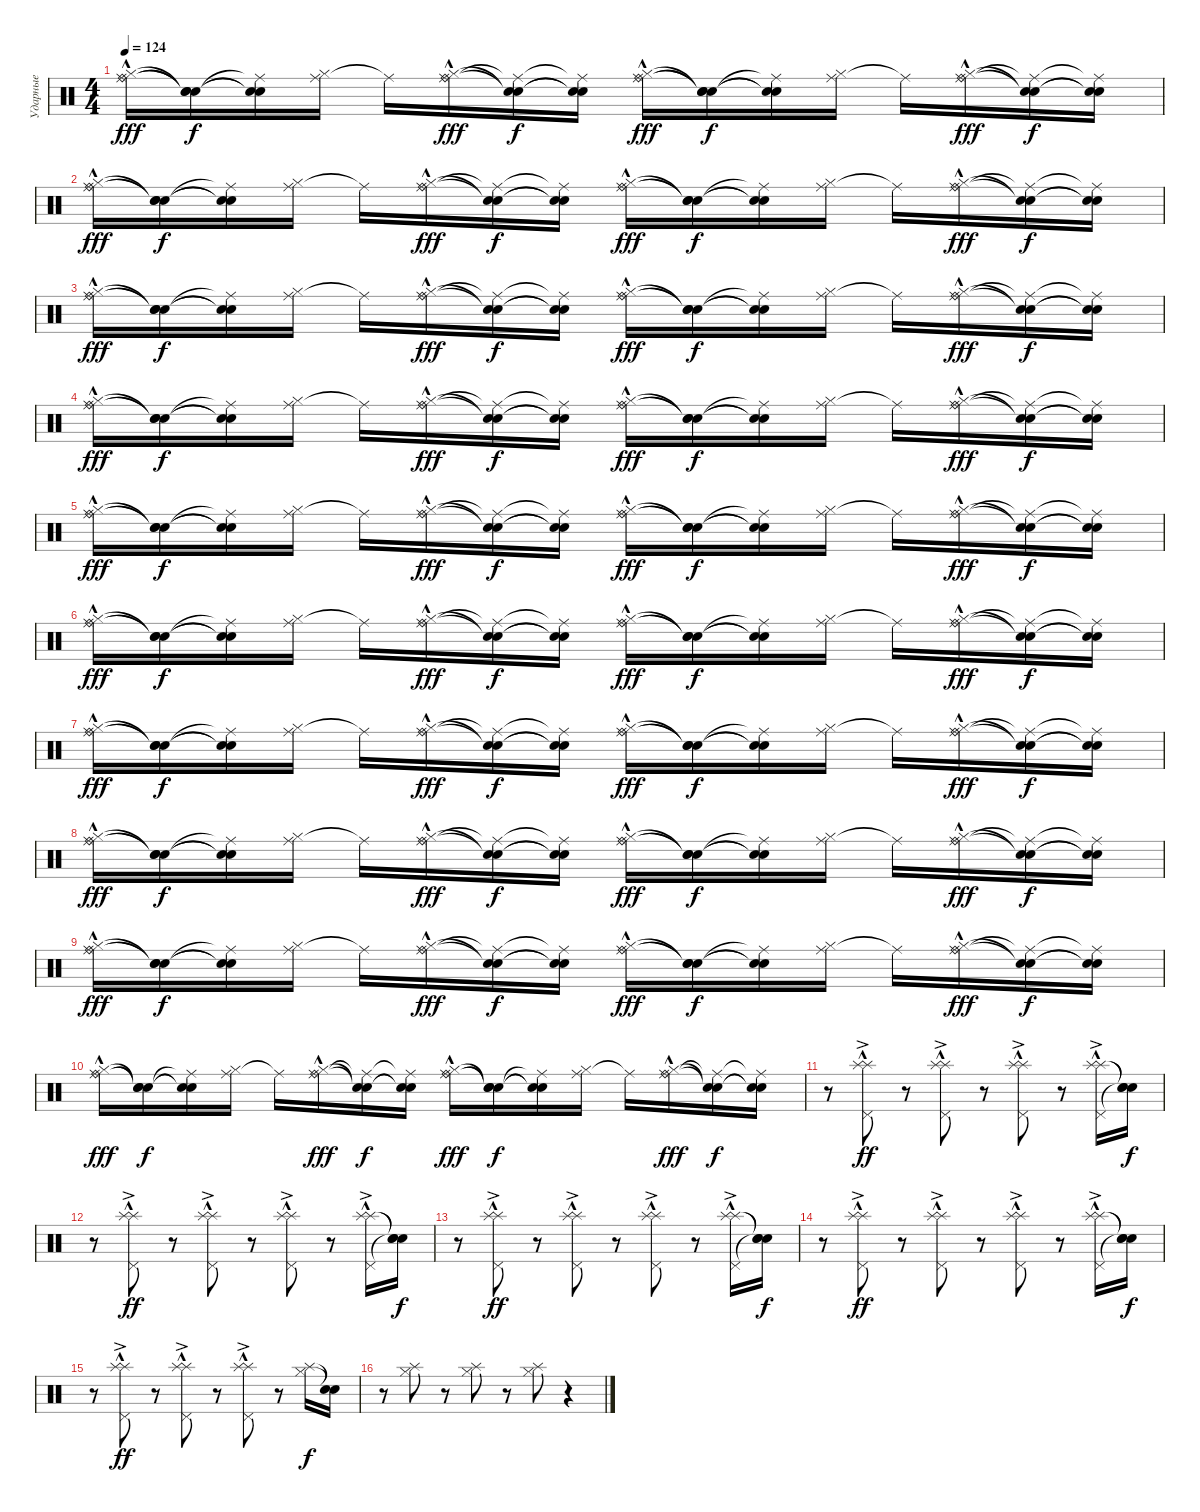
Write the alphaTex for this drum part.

\track ("Ударные" "Ударные") {instrument percussion}
\staff {score}
\articulation defaults
\ts (4 4)
\tempo 124
\clef neutral
\ks c
("Ride (middle)"{hac} "Hi-Hat (closed)" "Ride (bell)").16{dy fff} ("Snare (hit)"{t} "Snare (hit)"{t} "Snare (hit)"{t}).16{dy f} ("Ride (middle)"{t} "Snare (hit)"{t} "Snare (hit)"{t}).16 ("Ride (middle)" "Hi-Hat (closed)").16 "Ride (middle)"{t}.16 ("Ride (middle)" "Hi-Hat (closed)" "Ride (bell)"{hac}).16{dy fff} ("Ride (middle)"{t} "Snare (hit)"{t} "Snare (hit)"{t}).16{dy f} ("Ride (middle)"{t} "Snare (hit)"{t} "Snare (hit)"{t}).16 ("Ride (middle)"{hac} "Hi-Hat (closed)" "Ride (bell)").16{dy fff} ("Snare (hit)"{t} "Snare (hit)"{t} "Snare (hit)"{t}).16{dy f} ("Ride (middle)"{t} "Snare (hit)"{t} "Snare (hit)"{t}).16 ("Ride (middle)" "Hi-Hat (closed)").16 "Ride (middle)"{t}.16 ("Ride (middle)" "Hi-Hat (closed)" "Ride (bell)"{hac}).16{dy fff} ("Ride (middle)"{t} "Snare (hit)"{t} "Snare (hit)"{t}).16{dy f} ("Ride (middle)"{t} "Snare (hit)"{t} "Snare (hit)"{t}).16 |
("Ride (middle)"{hac} "Hi-Hat (closed)" "Ride (bell)").16{dy fff} ("Snare (hit)"{t} "Snare (hit)"{t} "Snare (hit)"{t}).16{dy f} ("Ride (middle)"{t} "Snare (hit)"{t} "Snare (hit)"{t}).16 ("Ride (middle)" "Hi-Hat (closed)").16 "Ride (middle)"{t}.16 ("Ride (middle)" "Hi-Hat (closed)" "Ride (bell)"{hac}).16{dy fff} ("Ride (middle)"{t} "Snare (hit)"{t} "Snare (hit)"{t}).16{dy f} ("Ride (middle)"{t} "Snare (hit)"{t} "Snare (hit)"{t}).16 ("Ride (middle)"{hac} "Hi-Hat (closed)" "Ride (bell)").16{dy fff} ("Snare (hit)"{t} "Snare (hit)"{t} "Snare (hit)"{t}).16{dy f} ("Ride (middle)"{t} "Snare (hit)"{t} "Snare (hit)"{t}).16 ("Ride (middle)" "Hi-Hat (closed)").16 "Ride (middle)"{t}.16 ("Ride (middle)" "Hi-Hat (closed)" "Ride (bell)"{hac}).16{dy fff} ("Ride (middle)"{t} "Snare (hit)"{t} "Snare (hit)"{t}).16{dy f} ("Ride (middle)"{t} "Snare (hit)"{t} "Snare (hit)"{t}).16 |
("Ride (middle)"{hac} "Hi-Hat (closed)" "Ride (bell)").16{dy fff} ("Snare (hit)"{t} "Snare (hit)"{t} "Snare (hit)"{t}).16{dy f} ("Ride (middle)"{t} "Snare (hit)"{t} "Snare (hit)"{t}).16 ("Ride (middle)" "Hi-Hat (closed)").16 "Ride (middle)"{t}.16 ("Ride (middle)" "Hi-Hat (closed)" "Ride (bell)"{hac}).16{dy fff} ("Ride (middle)"{t} "Snare (hit)"{t} "Snare (hit)"{t}).16{dy f} ("Ride (middle)"{t} "Snare (hit)"{t} "Snare (hit)"{t}).16 ("Ride (middle)"{hac} "Hi-Hat (closed)" "Ride (bell)").16{dy fff} ("Snare (hit)"{t} "Snare (hit)"{t} "Snare (hit)"{t}).16{dy f} ("Ride (middle)"{t} "Snare (hit)"{t} "Snare (hit)"{t}).16 ("Ride (middle)" "Hi-Hat (closed)").16 "Ride (middle)"{t}.16 ("Ride (middle)" "Hi-Hat (closed)" "Ride (bell)"{hac}).16{dy fff} ("Ride (middle)"{t} "Snare (hit)"{t} "Snare (hit)"{t}).16{dy f} ("Ride (middle)"{t} "Snare (hit)"{t} "Snare (hit)"{t}).16 |
("Ride (middle)"{hac} "Hi-Hat (closed)" "Ride (bell)").16{dy fff} ("Snare (hit)"{t} "Snare (hit)"{t} "Snare (hit)"{t}).16{dy f} ("Ride (middle)"{t} "Snare (hit)"{t} "Snare (hit)"{t}).16 ("Ride (middle)" "Hi-Hat (closed)").16 "Ride (middle)"{t}.16 ("Ride (middle)" "Hi-Hat (closed)" "Ride (bell)"{hac}).16{dy fff} ("Ride (middle)"{t} "Snare (hit)"{t} "Snare (hit)"{t}).16{dy f} ("Ride (middle)"{t} "Snare (hit)"{t} "Snare (hit)"{t}).16 ("Ride (middle)"{hac} "Hi-Hat (closed)" "Ride (bell)").16{dy fff} ("Snare (hit)"{t} "Snare (hit)"{t} "Snare (hit)"{t}).16{dy f} ("Ride (middle)"{t} "Snare (hit)"{t} "Snare (hit)"{t}).16 ("Ride (middle)" "Hi-Hat (closed)").16 "Ride (middle)"{t}.16 ("Ride (middle)" "Hi-Hat (closed)" "Ride (bell)"{hac}).16{dy fff} ("Ride (middle)"{t} "Snare (hit)"{t} "Snare (hit)"{t}).16{dy f} ("Ride (middle)"{t} "Snare (hit)"{t} "Snare (hit)"{t}).16 |
("Ride (middle)"{hac} "Hi-Hat (closed)" "Ride (bell)").16{dy fff} ("Snare (hit)"{t} "Snare (hit)"{t} "Snare (hit)"{t}).16{dy f} ("Ride (middle)"{t} "Snare (hit)"{t} "Snare (hit)"{t}).16 ("Ride (middle)" "Hi-Hat (closed)").16 "Ride (middle)"{t}.16 ("Ride (middle)" "Hi-Hat (closed)" "Ride (bell)"{hac}).16{dy fff} ("Ride (middle)"{t} "Snare (hit)"{t} "Snare (hit)"{t}).16{dy f} ("Ride (middle)"{t} "Snare (hit)"{t} "Snare (hit)"{t}).16 ("Ride (middle)"{hac} "Hi-Hat (closed)" "Ride (bell)").16{dy fff} ("Snare (hit)"{t} "Snare (hit)"{t} "Snare (hit)"{t}).16{dy f} ("Ride (middle)"{t} "Snare (hit)"{t} "Snare (hit)"{t}).16 ("Ride (middle)" "Hi-Hat (closed)").16 "Ride (middle)"{t}.16 ("Ride (middle)" "Hi-Hat (closed)" "Ride (bell)"{hac}).16{dy fff} ("Ride (middle)"{t} "Snare (hit)"{t} "Snare (hit)"{t}).16{dy f} ("Ride (middle)"{t} "Snare (hit)"{t} "Snare (hit)"{t}).16 |
("Ride (middle)"{hac} "Hi-Hat (closed)" "Ride (bell)").16{dy fff} ("Snare (hit)"{t} "Snare (hit)"{t} "Snare (hit)"{t}).16{dy f} ("Ride (middle)"{t} "Snare (hit)"{t} "Snare (hit)"{t}).16 ("Ride (middle)" "Hi-Hat (closed)").16 "Ride (middle)"{t}.16 ("Ride (middle)" "Hi-Hat (closed)" "Ride (bell)"{hac}).16{dy fff} ("Ride (middle)"{t} "Snare (hit)"{t} "Snare (hit)"{t}).16{dy f} ("Ride (middle)"{t} "Snare (hit)"{t} "Snare (hit)"{t}).16 ("Ride (middle)"{hac} "Hi-Hat (closed)" "Ride (bell)").16{dy fff} ("Snare (hit)"{t} "Snare (hit)"{t} "Snare (hit)"{t}).16{dy f} ("Ride (middle)"{t} "Snare (hit)"{t} "Snare (hit)"{t}).16 ("Ride (middle)" "Hi-Hat (closed)").16 "Ride (middle)"{t}.16 ("Ride (middle)" "Hi-Hat (closed)" "Ride (bell)"{hac}).16{dy fff} ("Ride (middle)"{t} "Snare (hit)"{t} "Snare (hit)"{t}).16{dy f} ("Ride (middle)"{t} "Snare (hit)"{t} "Snare (hit)"{t}).16 |
("Ride (middle)"{hac} "Hi-Hat (closed)" "Ride (bell)").16{dy fff} ("Snare (hit)"{t} "Snare (hit)"{t} "Snare (hit)"{t}).16{dy f} ("Ride (middle)"{t} "Snare (hit)"{t} "Snare (hit)"{t}).16 ("Ride (middle)" "Hi-Hat (closed)").16 "Ride (middle)"{t}.16 ("Ride (middle)" "Hi-Hat (closed)" "Ride (bell)"{hac}).16{dy fff} ("Ride (middle)"{t} "Snare (hit)"{t} "Snare (hit)"{t}).16{dy f} ("Ride (middle)"{t} "Snare (hit)"{t} "Snare (hit)"{t}).16 ("Ride (middle)"{hac} "Hi-Hat (closed)" "Ride (bell)").16{dy fff} ("Snare (hit)"{t} "Snare (hit)"{t} "Snare (hit)"{t}).16{dy f} ("Ride (middle)"{t} "Snare (hit)"{t} "Snare (hit)"{t}).16 ("Ride (middle)" "Hi-Hat (closed)").16 "Ride (middle)"{t}.16 ("Ride (middle)" "Hi-Hat (closed)" "Ride (bell)"{hac}).16{dy fff} ("Ride (middle)"{t} "Snare (hit)"{t} "Snare (hit)"{t}).16{dy f} ("Ride (middle)"{t} "Snare (hit)"{t} "Snare (hit)"{t}).16 |
("Ride (middle)"{hac} "Hi-Hat (closed)" "Ride (bell)").16{dy fff} ("Snare (hit)"{t} "Snare (hit)"{t} "Snare (hit)"{t}).16{dy f} ("Ride (middle)"{t} "Snare (hit)"{t} "Snare (hit)"{t}).16 ("Ride (middle)" "Hi-Hat (closed)").16 "Ride (middle)"{t}.16 ("Ride (middle)" "Hi-Hat (closed)" "Ride (bell)"{hac}).16{dy fff} ("Ride (middle)"{t} "Snare (hit)"{t} "Snare (hit)"{t}).16{dy f} ("Ride (middle)"{t} "Snare (hit)"{t} "Snare (hit)"{t}).16 ("Ride (middle)"{hac} "Hi-Hat (closed)" "Ride (bell)").16{dy fff} ("Snare (hit)"{t} "Snare (hit)"{t} "Snare (hit)"{t}).16{dy f} ("Ride (middle)"{t} "Snare (hit)"{t} "Snare (hit)"{t}).16 ("Ride (middle)" "Hi-Hat (closed)").16 "Ride (middle)"{t}.16 ("Ride (middle)" "Hi-Hat (closed)" "Ride (bell)"{hac}).16{dy fff} ("Ride (middle)"{t} "Snare (hit)"{t} "Snare (hit)"{t}).16{dy f} ("Ride (middle)"{t} "Snare (hit)"{t} "Snare (hit)"{t}).16 |
("Ride (middle)"{hac} "Hi-Hat (closed)" "Ride (bell)").16{dy fff} ("Snare (hit)"{t} "Snare (hit)"{t} "Snare (hit)"{t}).16{dy f} ("Ride (middle)"{t} "Snare (hit)"{t} "Snare (hit)"{t}).16 ("Ride (middle)" "Hi-Hat (closed)").16 "Ride (middle)"{t}.16 ("Ride (middle)" "Hi-Hat (closed)" "Ride (bell)"{hac}).16{dy fff} ("Ride (middle)"{t} "Snare (hit)"{t} "Snare (hit)"{t}).16{dy f} ("Ride (middle)"{t} "Snare (hit)"{t} "Snare (hit)"{t}).16 ("Ride (middle)"{hac} "Hi-Hat (closed)" "Ride (bell)").16{dy fff} ("Snare (hit)"{t} "Snare (hit)"{t} "Snare (hit)"{t}).16{dy f} ("Ride (middle)"{t} "Snare (hit)"{t} "Snare (hit)"{t}).16 ("Ride (middle)" "Hi-Hat (closed)").16 "Ride (middle)"{t}.16 ("Ride (middle)" "Hi-Hat (closed)" "Ride (bell)"{hac}).16{dy fff} ("Ride (middle)"{t} "Snare (hit)"{t} "Snare (hit)"{t}).16{dy f} ("Ride (middle)"{t} "Snare (hit)"{t} "Snare (hit)"{t}).16 |
("Ride (middle)"{hac} "Hi-Hat (closed)" "Ride (bell)").16{dy fff} ("Snare (hit)"{t} "Snare (hit)"{t} "Snare (hit)"{t}).16{dy f} ("Ride (middle)"{t} "Snare (hit)"{t} "Snare (hit)"{t}).16 ("Ride (middle)" "Hi-Hat (closed)").16 "Ride (middle)"{t}.16 ("Ride (middle)" "Hi-Hat (closed)" "Ride (bell)"{hac}).16{dy fff} ("Ride (middle)"{t} "Snare (hit)"{t} "Snare (hit)"{t}).16{dy f} ("Ride (middle)"{t} "Snare (hit)"{t} "Snare (hit)"{t}).16 ("Ride (middle)"{hac} "Hi-Hat (closed)" "Ride (bell)").16{dy fff} ("Snare (hit)"{t} "Snare (hit)"{t} "Snare (hit)"{t}).16{dy f} ("Ride (middle)"{t} "Snare (hit)"{t} "Snare (hit)"{t}).16 ("Ride (middle)" "Hi-Hat (closed)").16 "Ride (middle)"{t}.16 ("Ride (middle)" "Hi-Hat (closed)" "Ride (bell)"{hac}).16{dy fff} ("Ride (middle)"{t} "Snare (hit)"{t} "Snare (hit)"{t}).16{dy f} ("Ride (middle)"{t} "Snare (hit)"{t} "Snare (hit)"{t}).16 |
r.8 ("Pedal Hi-Hat (hit)" "Splash (hit)"{hac} "Splash (hit)"{ac}).8{dy ff} r.8 ("Pedal Hi-Hat (hit)" "Splash (hit)"{hac} "Splash (hit)"{ac}).8 r.8 ("Pedal Hi-Hat (hit)" "Splash (hit)"{hac} "Splash (hit)"{ac}).8 r.8 ("Pedal Hi-Hat (hit)" "Splash (hit)"{hac} "Splash (hit)"{ac}).16 ("Snare (hit)"{t} "Snare (hit)"{t} "Snare (hit)"{t}).16{dy f} |
r.8 ("Pedal Hi-Hat (hit)" "Splash (hit)"{hac} "Splash (hit)"{ac}).8{dy ff} r.8 ("Pedal Hi-Hat (hit)" "Splash (hit)"{hac} "Splash (hit)"{ac}).8 r.8 ("Pedal Hi-Hat (hit)" "Splash (hit)"{hac} "Splash (hit)"{ac}).8 r.8 ("Pedal Hi-Hat (hit)" "Splash (hit)"{hac} "Splash (hit)"{ac}).16 ("Snare (hit)"{t} "Snare (hit)"{t} "Snare (hit)"{t}).16{dy f} |
r.8 ("Pedal Hi-Hat (hit)" "Splash (hit)"{hac} "Splash (hit)"{ac}).8{dy ff} r.8 ("Pedal Hi-Hat (hit)" "Splash (hit)"{hac} "Splash (hit)"{ac}).8 r.8 ("Pedal Hi-Hat (hit)" "Splash (hit)"{hac} "Splash (hit)"{ac}).8 r.8 ("Pedal Hi-Hat (hit)" "Splash (hit)"{hac} "Splash (hit)"{ac}).16 ("Snare (hit)"{t} "Snare (hit)"{t} "Snare (hit)"{t}).16{dy f} |
r.8 ("Pedal Hi-Hat (hit)" "Splash (hit)"{hac} "Splash (hit)"{ac}).8{dy ff} r.8 ("Pedal Hi-Hat (hit)" "Splash (hit)"{hac} "Splash (hit)"{ac}).8 r.8 ("Pedal Hi-Hat (hit)" "Splash (hit)"{hac} "Splash (hit)"{ac}).8 r.8 ("Pedal Hi-Hat (hit)" "Splash (hit)"{hac} "Splash (hit)"{ac}).16 ("Snare (hit)"{t} "Snare (hit)"{t} "Snare (hit)"{t}).16{dy f} |
r.8 ("Pedal Hi-Hat (hit)" "Splash (hit)"{hac} "Splash (hit)"{ac}).8{dy ff} r.8 ("Pedal Hi-Hat (hit)" "Splash (hit)"{hac} "Splash (hit)"{ac}).8 r.8 ("Pedal Hi-Hat (hit)" "Splash (hit)"{hac} "Splash (hit)"{ac}).8 r.8 ("Hi-Hat (closed)" "Splash (hit)").16{dy f} ("Snare (hit)"{t} "Snare (hit)"{t}).16 |
r.8 ("Hi-Hat (closed)" "Splash (hit)").8 r.8 ("Hi-Hat (closed)" "Splash (hit)").8 r.8 ("Hi-Hat (closed)" "Splash (hit)").8 r.4
